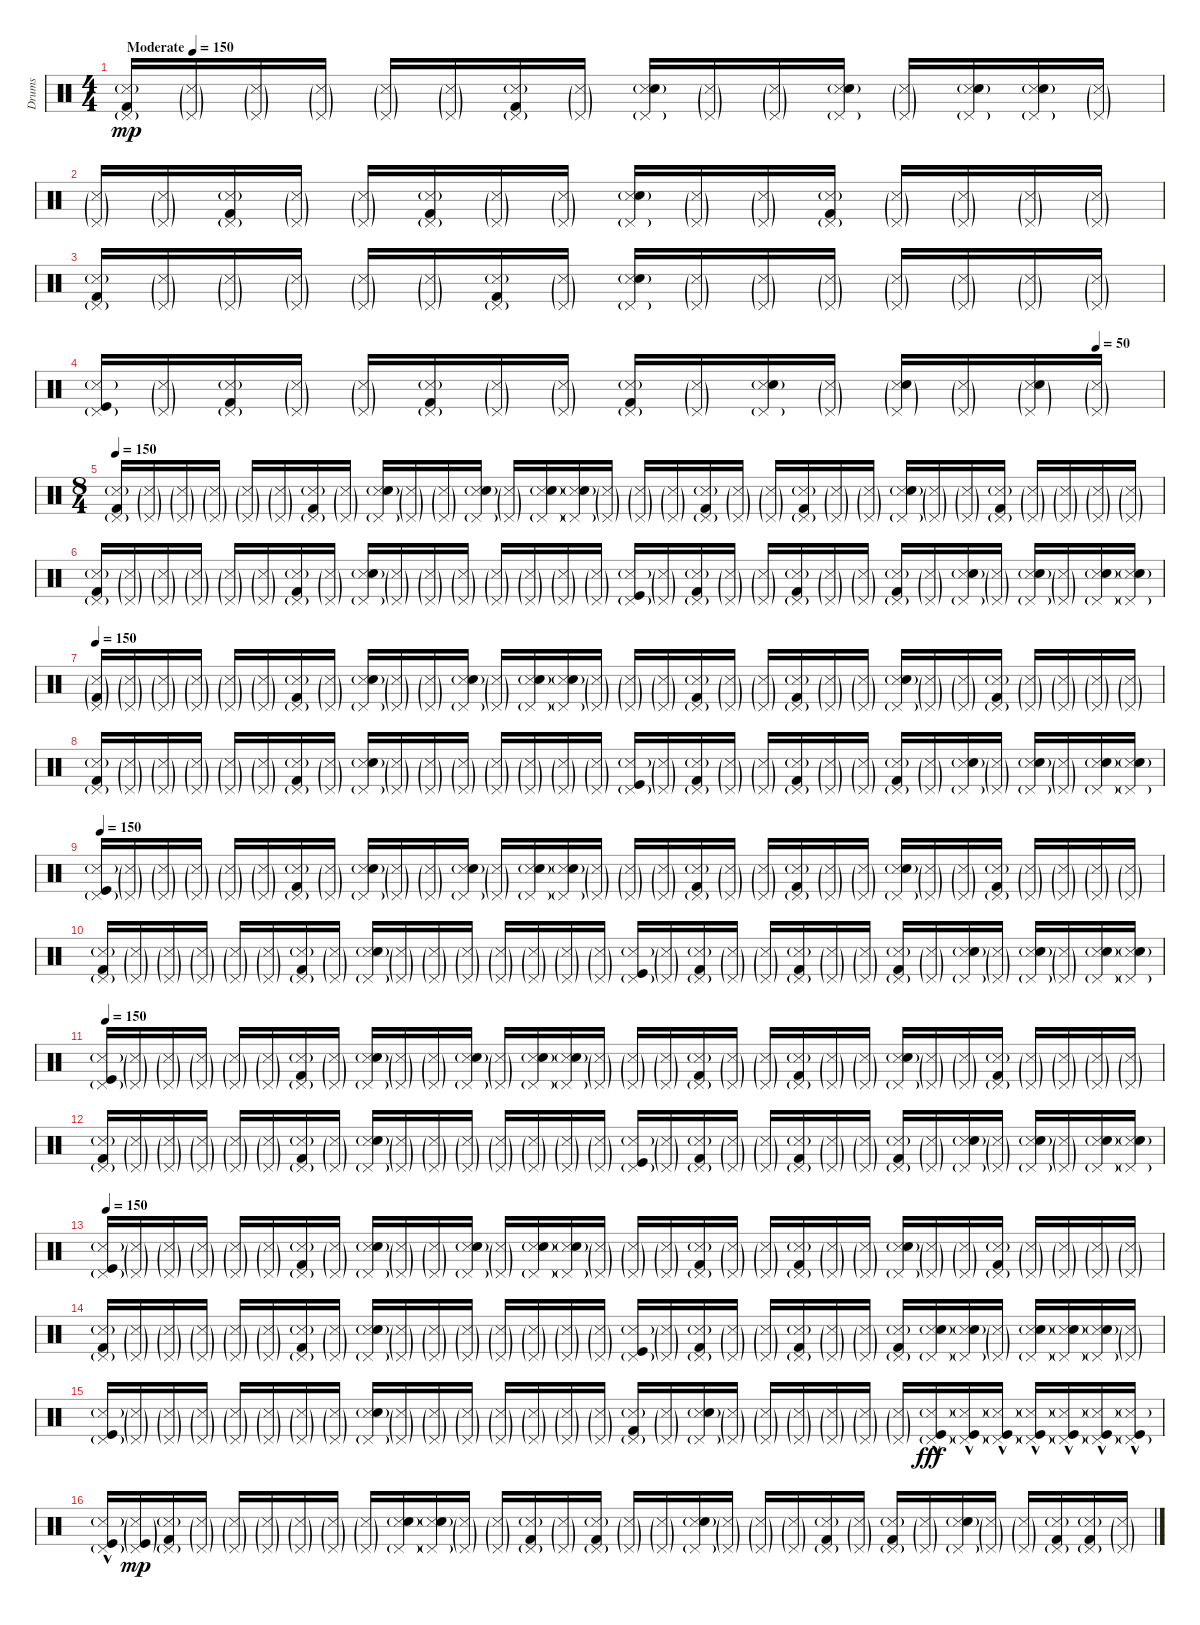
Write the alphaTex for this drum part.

\track ("Drums" "Drums") {instrument percussion}
\staff {score}
\articulation defaults
\ts (4 4)
\tempo (150 "Moderate")
\clef neutral
\ks c
("Pedal Hi-Hat (hit)"{g} "Snare (side stick) 3"{g} "Kick (hit) 2").16{dy mp} ("Pedal Hi-Hat (hit)"{g} "Snare (side stick) 3"{g}).16 ("Pedal Hi-Hat (hit)"{g} "Snare (side stick) 3"{g}).16 ("Pedal Hi-Hat (hit)"{g} "Snare (side stick) 3"{g}).16 ("Pedal Hi-Hat (hit)"{g} "Snare (side stick) 3"{g}).16 ("Pedal Hi-Hat (hit)"{g} "Snare (side stick) 3"{g}).16 ("Pedal Hi-Hat (hit)"{g} "Snare (side stick) 3"{g} "Kick (hit) 2").16 ("Pedal Hi-Hat (hit)"{g} "Snare (side stick) 3"{g}).16 ("Pedal Hi-Hat (hit)"{g} "Snare (side stick) 3"{g} "Electric Snare (hit)").16 ("Pedal Hi-Hat (hit)"{g} "Snare (side stick) 3"{g}).16 ("Pedal Hi-Hat (hit)"{g} "Snare (side stick) 3"{g}).16 ("Pedal Hi-Hat (hit)"{g} "Snare (side stick) 3"{g} "Electric Snare (hit)").16 ("Pedal Hi-Hat (hit)"{g} "Snare (side stick) 3"{g}).16 ("Pedal Hi-Hat (hit)"{g} "Snare (side stick) 3"{g} "Electric Snare (hit)").16 ("Pedal Hi-Hat (hit)"{g} "Snare (side stick) 3"{g} "Electric Snare (hit)").16 ("Pedal Hi-Hat (hit)"{g} "Snare (side stick) 3"{g}).16 |
("Pedal Hi-Hat (hit)"{g} "Snare (side stick) 3"{g}).16 ("Pedal Hi-Hat (hit)"{g} "Snare (side stick) 3"{g}).16 ("Pedal Hi-Hat (hit)"{g} "Snare (side stick) 3"{g} "Kick (hit) 2").16 ("Pedal Hi-Hat (hit)"{g} "Snare (side stick) 3"{g}).16 ("Pedal Hi-Hat (hit)"{g} "Snare (side stick) 3"{g}).16 ("Pedal Hi-Hat (hit)"{g} "Snare (side stick) 3"{g} "Kick (hit) 2").16 ("Pedal Hi-Hat (hit)"{g} "Snare (side stick) 3"{g}).16 ("Pedal Hi-Hat (hit)"{g} "Snare (side stick) 3"{g}).16 ("Pedal Hi-Hat (hit)"{g} "Snare (side stick) 3"{g} "Electric Snare (hit)").16 ("Pedal Hi-Hat (hit)"{g} "Snare (side stick) 3"{g}).16 ("Pedal Hi-Hat (hit)"{g} "Snare (side stick) 3"{g}).16 ("Pedal Hi-Hat (hit)"{g} "Snare (side stick) 3"{g} "Kick (hit) 2").16 ("Pedal Hi-Hat (hit)"{g} "Snare (side stick) 3"{g}).16 ("Pedal Hi-Hat (hit)"{g} "Snare (side stick) 3"{g}).16 ("Pedal Hi-Hat (hit)"{g} "Snare (side stick) 3"{g}).16 ("Pedal Hi-Hat (hit)"{g} "Snare (side stick) 3"{g}).16 |
("Pedal Hi-Hat (hit)"{g} "Snare (side stick) 3"{g} "Kick (hit) 2").16 ("Pedal Hi-Hat (hit)"{g} "Snare (side stick) 3"{g}).16 ("Pedal Hi-Hat (hit)"{g} "Snare (side stick) 3"{g}).16 ("Pedal Hi-Hat (hit)"{g} "Snare (side stick) 3"{g}).16 ("Pedal Hi-Hat (hit)"{g} "Snare (side stick) 3"{g}).16 ("Pedal Hi-Hat (hit)"{g} "Snare (side stick) 3"{g}).16 ("Pedal Hi-Hat (hit)"{g} "Snare (side stick) 3"{g} "Kick (hit) 2").16 ("Pedal Hi-Hat (hit)"{g} "Snare (side stick) 3"{g}).16 ("Pedal Hi-Hat (hit)"{g} "Snare (side stick) 3"{g} "Electric Snare (hit)").16 ("Pedal Hi-Hat (hit)"{g} "Snare (side stick) 3"{g}).16 ("Pedal Hi-Hat (hit)"{g} "Snare (side stick) 3"{g}).16 ("Pedal Hi-Hat (hit)"{g} "Snare (side stick) 3"{g}).16 ("Pedal Hi-Hat (hit)"{g} "Snare (side stick) 3"{g}).16 ("Pedal Hi-Hat (hit)"{g} "Snare (side stick) 3"{g}).16 ("Pedal Hi-Hat (hit)"{g} "Snare (side stick) 3"{g}).16 ("Pedal Hi-Hat (hit)"{g} "Snare (side stick) 3"{g}).16 |
\tempo (50 0.9375)
("Pedal Hi-Hat (hit)"{g} "Snare (side stick) 3"{g} "Kick (hit)").16 ("Pedal Hi-Hat (hit)"{g} "Snare (side stick) 3"{g}).16 ("Pedal Hi-Hat (hit)"{g} "Snare (side stick) 3"{g} "Kick (hit) 2").16 ("Pedal Hi-Hat (hit)"{g} "Snare (side stick) 3"{g}).16 ("Pedal Hi-Hat (hit)"{g} "Snare (side stick) 3"{g}).16 ("Pedal Hi-Hat (hit)"{g} "Snare (side stick) 3"{g} "Kick (hit) 2").16 ("Pedal Hi-Hat (hit)"{g} "Snare (side stick) 3"{g}).16 ("Pedal Hi-Hat (hit)"{g} "Snare (side stick) 3"{g}).16 ("Pedal Hi-Hat (hit)"{g} "Snare (side stick) 3"{g} "Kick (hit) 2").16 ("Pedal Hi-Hat (hit)"{g} "Snare (side stick) 3"{g}).16 ("Pedal Hi-Hat (hit)"{g} "Snare (side stick) 3"{g} "Electric Snare (hit)").16 ("Pedal Hi-Hat (hit)"{g} "Snare (side stick) 3"{g}).16 ("Pedal Hi-Hat (hit)"{g} "Snare (side stick) 3"{g} "Electric Snare (hit)"{g}).16 ("Pedal Hi-Hat (hit)"{g} "Snare (side stick) 3"{g}).16 ("Pedal Hi-Hat (hit)"{g} "Snare (side stick) 3"{g} "Electric Snare (hit)"{g}).16 ("Pedal Hi-Hat (hit)"{g} "Snare (side stick) 3"{g}).16 |
\ts (8 4)
\tempo 150
("Pedal Hi-Hat (hit)"{g} "Snare (side stick) 3"{g} "Kick (hit) 2").16 ("Pedal Hi-Hat (hit)"{g} "Snare (side stick) 3"{g}).16 ("Pedal Hi-Hat (hit)"{g} "Snare (side stick) 3"{g}).16 ("Pedal Hi-Hat (hit)"{g} "Snare (side stick) 3"{g}).16 ("Pedal Hi-Hat (hit)"{g} "Snare (side stick) 3"{g}).16 ("Pedal Hi-Hat (hit)"{g} "Snare (side stick) 3"{g}).16 ("Pedal Hi-Hat (hit)"{g} "Snare (side stick) 3"{g} "Kick (hit) 2").16 ("Pedal Hi-Hat (hit)"{g} "Snare (side stick) 3"{g}).16 ("Pedal Hi-Hat (hit)"{g} "Snare (side stick) 3"{g} "Electric Snare (hit)").16 ("Pedal Hi-Hat (hit)"{g} "Snare (side stick) 3"{g}).16 ("Pedal Hi-Hat (hit)"{g} "Snare (side stick) 3"{g}).16 ("Pedal Hi-Hat (hit)"{g} "Snare (side stick) 3"{g} "Electric Snare (hit)").16 ("Pedal Hi-Hat (hit)"{g} "Snare (side stick) 3"{g}).16 ("Pedal Hi-Hat (hit)"{g} "Snare (side stick) 3"{g} "Electric Snare (hit)").16 ("Pedal Hi-Hat (hit)"{g} "Snare (side stick) 3"{g} "Electric Snare (hit)").16 ("Pedal Hi-Hat (hit)"{g} "Snare (side stick) 3"{g}).16 ("Pedal Hi-Hat (hit)"{g} "Snare (side stick) 3"{g}).16 ("Pedal Hi-Hat (hit)"{g} "Snare (side stick) 3"{g}).16 ("Pedal Hi-Hat (hit)"{g} "Snare (side stick) 3"{g} "Kick (hit) 2").16 ("Pedal Hi-Hat (hit)"{g} "Snare (side stick) 3"{g}).16 ("Pedal Hi-Hat (hit)"{g} "Snare (side stick) 3"{g}).16 ("Pedal Hi-Hat (hit)"{g} "Snare (side stick) 3"{g} "Kick (hit) 2").16 ("Pedal Hi-Hat (hit)"{g} "Snare (side stick) 3"{g}).16 ("Pedal Hi-Hat (hit)"{g} "Snare (side stick) 3"{g}).16 ("Pedal Hi-Hat (hit)"{g} "Snare (side stick) 3"{g} "Electric Snare (hit)").16 ("Pedal Hi-Hat (hit)"{g} "Snare (side stick) 3"{g}).16 ("Pedal Hi-Hat (hit)"{g} "Snare (side stick) 3"{g}).16 ("Pedal Hi-Hat (hit)"{g} "Snare (side stick) 3"{g} "Kick (hit) 2").16 ("Pedal Hi-Hat (hit)"{g} "Snare (side stick) 3"{g}).16 ("Pedal Hi-Hat (hit)"{g} "Snare (side stick) 3"{g}).16 ("Pedal Hi-Hat (hit)"{g} "Snare (side stick) 3"{g}).16 ("Pedal Hi-Hat (hit)"{g} "Snare (side stick) 3"{g}).16 |
("Pedal Hi-Hat (hit)"{g} "Snare (side stick) 3"{g} "Kick (hit) 2").16 ("Pedal Hi-Hat (hit)"{g} "Snare (side stick) 3"{g}).16 ("Pedal Hi-Hat (hit)"{g} "Snare (side stick) 3"{g}).16 ("Pedal Hi-Hat (hit)"{g} "Snare (side stick) 3"{g}).16 ("Pedal Hi-Hat (hit)"{g} "Snare (side stick) 3"{g}).16 ("Pedal Hi-Hat (hit)"{g} "Snare (side stick) 3"{g}).16 ("Pedal Hi-Hat (hit)"{g} "Snare (side stick) 3"{g} "Kick (hit) 2").16 ("Pedal Hi-Hat (hit)"{g} "Snare (side stick) 3"{g}).16 ("Pedal Hi-Hat (hit)"{g} "Snare (side stick) 3"{g} "Electric Snare (hit)").16 ("Pedal Hi-Hat (hit)"{g} "Snare (side stick) 3"{g}).16 ("Pedal Hi-Hat (hit)"{g} "Snare (side stick) 3"{g}).16 ("Pedal Hi-Hat (hit)"{g} "Snare (side stick) 3"{g}).16 ("Pedal Hi-Hat (hit)"{g} "Snare (side stick) 3"{g}).16 ("Pedal Hi-Hat (hit)"{g} "Snare (side stick) 3"{g}).16 ("Pedal Hi-Hat (hit)"{g} "Snare (side stick) 3"{g}).16 ("Pedal Hi-Hat (hit)"{g} "Snare (side stick) 3"{g}).16 ("Pedal Hi-Hat (hit)"{g} "Snare (side stick) 3"{g} "Kick (hit)").16 ("Pedal Hi-Hat (hit)"{g} "Snare (side stick) 3"{g}).16 ("Pedal Hi-Hat (hit)"{g} "Snare (side stick) 3"{g} "Kick (hit) 2").16 ("Pedal Hi-Hat (hit)"{g} "Snare (side stick) 3"{g}).16 ("Pedal Hi-Hat (hit)"{g} "Snare (side stick) 3"{g}).16 ("Pedal Hi-Hat (hit)"{g} "Snare (side stick) 3"{g} "Kick (hit) 2").16 ("Pedal Hi-Hat (hit)"{g} "Snare (side stick) 3"{g}).16 ("Pedal Hi-Hat (hit)"{g} "Snare (side stick) 3"{g}).16 ("Pedal Hi-Hat (hit)"{g} "Snare (side stick) 3"{g} "Kick (hit) 2").16 ("Pedal Hi-Hat (hit)"{g} "Snare (side stick) 3"{g}).16 ("Pedal Hi-Hat (hit)"{g} "Snare (side stick) 3"{g} "Electric Snare (hit)").16 ("Pedal Hi-Hat (hit)"{g} "Snare (side stick) 3"{g}).16 ("Pedal Hi-Hat (hit)"{g} "Snare (side stick) 3"{g} "Electric Snare (hit)").16 ("Pedal Hi-Hat (hit)"{g} "Snare (side stick) 3"{g}).16 ("Pedal Hi-Hat (hit)"{g} "Snare (side stick) 3"{g} "Electric Snare (hit)").16 ("Pedal Hi-Hat (hit)"{g} "Snare (side stick) 3"{g} "Electric Snare (hit)").16 |
\tempo 150
("Pedal Hi-Hat (hit)"{g} "Snare (side stick) 3"{g} "Kick (hit) 2"{g}).16 ("Pedal Hi-Hat (hit)"{g} "Snare (side stick) 3"{g}).16 ("Pedal Hi-Hat (hit)"{g} "Snare (side stick) 3"{g}).16 ("Pedal Hi-Hat (hit)"{g} "Snare (side stick) 3"{g}).16 ("Pedal Hi-Hat (hit)"{g} "Snare (side stick) 3"{g}).16 ("Pedal Hi-Hat (hit)"{g} "Snare (side stick) 3"{g}).16 ("Pedal Hi-Hat (hit)"{g} "Snare (side stick) 3"{g} "Kick (hit) 2").16 ("Pedal Hi-Hat (hit)"{g} "Snare (side stick) 3"{g}).16 ("Pedal Hi-Hat (hit)"{g} "Snare (side stick) 3"{g} "Electric Snare (hit)").16 ("Pedal Hi-Hat (hit)"{g} "Snare (side stick) 3"{g}).16 ("Pedal Hi-Hat (hit)"{g} "Snare (side stick) 3"{g}).16 ("Pedal Hi-Hat (hit)"{g} "Snare (side stick) 3"{g} "Electric Snare (hit)").16 ("Pedal Hi-Hat (hit)"{g} "Snare (side stick) 3"{g}).16 ("Pedal Hi-Hat (hit)"{g} "Snare (side stick) 3"{g} "Electric Snare (hit)").16 ("Pedal Hi-Hat (hit)"{g} "Snare (side stick) 3"{g} "Electric Snare (hit)").16 ("Pedal Hi-Hat (hit)"{g} "Snare (side stick) 3"{g}).16 ("Pedal Hi-Hat (hit)"{g} "Snare (side stick) 3"{g}).16 ("Pedal Hi-Hat (hit)"{g} "Snare (side stick) 3"{g}).16 ("Pedal Hi-Hat (hit)"{g} "Snare (side stick) 3"{g} "Kick (hit) 2").16 ("Pedal Hi-Hat (hit)"{g} "Snare (side stick) 3"{g}).16 ("Pedal Hi-Hat (hit)"{g} "Snare (side stick) 3"{g}).16 ("Pedal Hi-Hat (hit)"{g} "Snare (side stick) 3"{g} "Kick (hit) 2").16 ("Pedal Hi-Hat (hit)"{g} "Snare (side stick) 3"{g}).16 ("Pedal Hi-Hat (hit)"{g} "Snare (side stick) 3"{g}).16 ("Pedal Hi-Hat (hit)"{g} "Snare (side stick) 3"{g} "Electric Snare (hit)").16 ("Pedal Hi-Hat (hit)"{g} "Snare (side stick) 3"{g}).16 ("Pedal Hi-Hat (hit)"{g} "Snare (side stick) 3"{g}).16 ("Pedal Hi-Hat (hit)"{g} "Snare (side stick) 3"{g} "Kick (hit) 2").16 ("Pedal Hi-Hat (hit)"{g} "Snare (side stick) 3"{g}).16 ("Pedal Hi-Hat (hit)"{g} "Snare (side stick) 3"{g}).16 ("Pedal Hi-Hat (hit)"{g} "Snare (side stick) 3"{g}).16 ("Pedal Hi-Hat (hit)"{g} "Snare (side stick) 3"{g}).16 |
("Pedal Hi-Hat (hit)"{g} "Snare (side stick) 3"{g} "Kick (hit) 2").16 ("Pedal Hi-Hat (hit)"{g} "Snare (side stick) 3"{g}).16 ("Pedal Hi-Hat (hit)"{g} "Snare (side stick) 3"{g}).16 ("Pedal Hi-Hat (hit)"{g} "Snare (side stick) 3"{g}).16 ("Pedal Hi-Hat (hit)"{g} "Snare (side stick) 3"{g}).16 ("Pedal Hi-Hat (hit)"{g} "Snare (side stick) 3"{g}).16 ("Pedal Hi-Hat (hit)"{g} "Snare (side stick) 3"{g} "Kick (hit) 2").16 ("Pedal Hi-Hat (hit)"{g} "Snare (side stick) 3"{g}).16 ("Pedal Hi-Hat (hit)"{g} "Snare (side stick) 3"{g} "Electric Snare (hit)").16 ("Pedal Hi-Hat (hit)"{g} "Snare (side stick) 3"{g}).16 ("Pedal Hi-Hat (hit)"{g} "Snare (side stick) 3"{g}).16 ("Pedal Hi-Hat (hit)"{g} "Snare (side stick) 3"{g}).16 ("Pedal Hi-Hat (hit)"{g} "Snare (side stick) 3"{g}).16 ("Pedal Hi-Hat (hit)"{g} "Snare (side stick) 3"{g}).16 ("Pedal Hi-Hat (hit)"{g} "Snare (side stick) 3"{g}).16 ("Pedal Hi-Hat (hit)"{g} "Snare (side stick) 3"{g}).16 ("Pedal Hi-Hat (hit)"{g} "Snare (side stick) 3"{g} "Kick (hit)").16 ("Pedal Hi-Hat (hit)"{g} "Snare (side stick) 3"{g}).16 ("Pedal Hi-Hat (hit)"{g} "Snare (side stick) 3"{g} "Kick (hit) 2").16 ("Pedal Hi-Hat (hit)"{g} "Snare (side stick) 3"{g}).16 ("Pedal Hi-Hat (hit)"{g} "Snare (side stick) 3"{g}).16 ("Pedal Hi-Hat (hit)"{g} "Snare (side stick) 3"{g} "Kick (hit) 2").16 ("Pedal Hi-Hat (hit)"{g} "Snare (side stick) 3"{g}).16 ("Pedal Hi-Hat (hit)"{g} "Snare (side stick) 3"{g}).16 ("Pedal Hi-Hat (hit)"{g} "Snare (side stick) 3"{g} "Kick (hit) 2").16 ("Pedal Hi-Hat (hit)"{g} "Snare (side stick) 3"{g}).16 ("Pedal Hi-Hat (hit)"{g} "Snare (side stick) 3"{g} "Electric Snare (hit)").16 ("Pedal Hi-Hat (hit)"{g} "Snare (side stick) 3"{g}).16 ("Pedal Hi-Hat (hit)"{g} "Snare (side stick) 3"{g} "Electric Snare (hit)").16 ("Pedal Hi-Hat (hit)"{g} "Snare (side stick) 3"{g}).16 ("Pedal Hi-Hat (hit)"{g} "Snare (side stick) 3"{g} "Electric Snare (hit)").16 ("Pedal Hi-Hat (hit)"{g} "Snare (side stick) 3"{g} "Electric Snare (hit)").16 |
\tempo 150
("Pedal Hi-Hat (hit)"{g} "Snare (side stick) 3"{g} "Kick (hit)").16 ("Pedal Hi-Hat (hit)"{g} "Snare (side stick) 3"{g}).16 ("Pedal Hi-Hat (hit)"{g} "Snare (side stick) 3"{g}).16 ("Pedal Hi-Hat (hit)"{g} "Snare (side stick) 3"{g}).16 ("Pedal Hi-Hat (hit)"{g} "Snare (side stick) 3"{g}).16 ("Pedal Hi-Hat (hit)"{g} "Snare (side stick) 3"{g}).16 ("Pedal Hi-Hat (hit)"{g} "Snare (side stick) 3"{g} "Kick (hit) 2").16 ("Pedal Hi-Hat (hit)"{g} "Snare (side stick) 3"{g}).16 ("Pedal Hi-Hat (hit)"{g} "Snare (side stick) 3"{g} "Electric Snare (hit)").16 ("Pedal Hi-Hat (hit)"{g} "Snare (side stick) 3"{g}).16 ("Pedal Hi-Hat (hit)"{g} "Snare (side stick) 3"{g}).16 ("Pedal Hi-Hat (hit)"{g} "Snare (side stick) 3"{g} "Electric Snare (hit)").16 ("Pedal Hi-Hat (hit)"{g} "Snare (side stick) 3"{g}).16 ("Pedal Hi-Hat (hit)"{g} "Snare (side stick) 3"{g} "Electric Snare (hit)").16 ("Pedal Hi-Hat (hit)"{g} "Snare (side stick) 3"{g} "Electric Snare (hit)").16 ("Pedal Hi-Hat (hit)"{g} "Snare (side stick) 3"{g}).16 ("Pedal Hi-Hat (hit)"{g} "Snare (side stick) 3"{g}).16 ("Pedal Hi-Hat (hit)"{g} "Snare (side stick) 3"{g}).16 ("Pedal Hi-Hat (hit)"{g} "Snare (side stick) 3"{g} "Kick (hit) 2").16 ("Pedal Hi-Hat (hit)"{g} "Snare (side stick) 3"{g}).16 ("Pedal Hi-Hat (hit)"{g} "Snare (side stick) 3"{g}).16 ("Pedal Hi-Hat (hit)"{g} "Snare (side stick) 3"{g} "Kick (hit) 2").16 ("Pedal Hi-Hat (hit)"{g} "Snare (side stick) 3"{g}).16 ("Pedal Hi-Hat (hit)"{g} "Snare (side stick) 3"{g}).16 ("Pedal Hi-Hat (hit)"{g} "Snare (side stick) 3"{g} "Electric Snare (hit)").16 ("Pedal Hi-Hat (hit)"{g} "Snare (side stick) 3"{g}).16 ("Pedal Hi-Hat (hit)"{g} "Snare (side stick) 3"{g}).16 ("Pedal Hi-Hat (hit)"{g} "Snare (side stick) 3"{g} "Kick (hit) 2").16 ("Pedal Hi-Hat (hit)"{g} "Snare (side stick) 3"{g}).16 ("Pedal Hi-Hat (hit)"{g} "Snare (side stick) 3"{g}).16 ("Pedal Hi-Hat (hit)"{g} "Snare (side stick) 3"{g}).16 ("Pedal Hi-Hat (hit)"{g} "Snare (side stick) 3"{g}).16 |
("Pedal Hi-Hat (hit)"{g} "Snare (side stick) 3"{g} "Kick (hit) 2").16 ("Pedal Hi-Hat (hit)"{g} "Snare (side stick) 3"{g}).16 ("Pedal Hi-Hat (hit)"{g} "Snare (side stick) 3"{g}).16 ("Pedal Hi-Hat (hit)"{g} "Snare (side stick) 3"{g}).16 ("Pedal Hi-Hat (hit)"{g} "Snare (side stick) 3"{g}).16 ("Pedal Hi-Hat (hit)"{g} "Snare (side stick) 3"{g}).16 ("Pedal Hi-Hat (hit)"{g} "Snare (side stick) 3"{g} "Kick (hit) 2").16 ("Pedal Hi-Hat (hit)"{g} "Snare (side stick) 3"{g}).16 ("Pedal Hi-Hat (hit)"{g} "Snare (side stick) 3"{g} "Electric Snare (hit)").16 ("Pedal Hi-Hat (hit)"{g} "Snare (side stick) 3"{g}).16 ("Pedal Hi-Hat (hit)"{g} "Snare (side stick) 3"{g}).16 ("Pedal Hi-Hat (hit)"{g} "Snare (side stick) 3"{g}).16 ("Pedal Hi-Hat (hit)"{g} "Snare (side stick) 3"{g}).16 ("Pedal Hi-Hat (hit)"{g} "Snare (side stick) 3"{g}).16 ("Pedal Hi-Hat (hit)"{g} "Snare (side stick) 3"{g}).16 ("Pedal Hi-Hat (hit)"{g} "Snare (side stick) 3"{g}).16 ("Pedal Hi-Hat (hit)"{g} "Snare (side stick) 3"{g} "Kick (hit)").16 ("Pedal Hi-Hat (hit)"{g} "Snare (side stick) 3"{g}).16 ("Pedal Hi-Hat (hit)"{g} "Snare (side stick) 3"{g} "Kick (hit) 2").16 ("Pedal Hi-Hat (hit)"{g} "Snare (side stick) 3"{g}).16 ("Pedal Hi-Hat (hit)"{g} "Snare (side stick) 3"{g}).16 ("Pedal Hi-Hat (hit)"{g} "Snare (side stick) 3"{g} "Kick (hit) 2").16 ("Pedal Hi-Hat (hit)"{g} "Snare (side stick) 3"{g}).16 ("Pedal Hi-Hat (hit)"{g} "Snare (side stick) 3"{g}).16 ("Pedal Hi-Hat (hit)"{g} "Snare (side stick) 3"{g} "Kick (hit) 2").16 ("Pedal Hi-Hat (hit)"{g} "Snare (side stick) 3"{g}).16 ("Pedal Hi-Hat (hit)"{g} "Snare (side stick) 3"{g} "Electric Snare (hit)").16 ("Pedal Hi-Hat (hit)"{g} "Snare (side stick) 3"{g}).16 ("Pedal Hi-Hat (hit)"{g} "Snare (side stick) 3"{g} "Electric Snare (hit)").16 ("Pedal Hi-Hat (hit)"{g} "Snare (side stick) 3"{g}).16 ("Pedal Hi-Hat (hit)"{g} "Snare (side stick) 3"{g} "Electric Snare (hit)").16 ("Pedal Hi-Hat (hit)"{g} "Snare (side stick) 3"{g} "Electric Snare (hit)").16 |
\tempo 150
("Pedal Hi-Hat (hit)"{g} "Snare (side stick) 3"{g} "Kick (hit)").16 ("Pedal Hi-Hat (hit)"{g} "Snare (side stick) 3"{g}).16 ("Pedal Hi-Hat (hit)"{g} "Snare (side stick) 3"{g}).16 ("Pedal Hi-Hat (hit)"{g} "Snare (side stick) 3"{g}).16 ("Pedal Hi-Hat (hit)"{g} "Snare (side stick) 3"{g}).16 ("Pedal Hi-Hat (hit)"{g} "Snare (side stick) 3"{g}).16 ("Pedal Hi-Hat (hit)"{g} "Snare (side stick) 3"{g} "Kick (hit) 2").16 ("Pedal Hi-Hat (hit)"{g} "Snare (side stick) 3"{g}).16 ("Pedal Hi-Hat (hit)"{g} "Snare (side stick) 3"{g} "Electric Snare (hit)").16 ("Pedal Hi-Hat (hit)"{g} "Snare (side stick) 3"{g}).16 ("Pedal Hi-Hat (hit)"{g} "Snare (side stick) 3"{g}).16 ("Pedal Hi-Hat (hit)"{g} "Snare (side stick) 3"{g} "Electric Snare (hit)").16 ("Pedal Hi-Hat (hit)"{g} "Snare (side stick) 3"{g}).16 ("Pedal Hi-Hat (hit)"{g} "Snare (side stick) 3"{g} "Electric Snare (hit)").16 ("Pedal Hi-Hat (hit)"{g} "Snare (side stick) 3"{g} "Electric Snare (hit)").16 ("Pedal Hi-Hat (hit)"{g} "Snare (side stick) 3"{g}).16 ("Pedal Hi-Hat (hit)"{g} "Snare (side stick) 3"{g}).16 ("Pedal Hi-Hat (hit)"{g} "Snare (side stick) 3"{g}).16 ("Pedal Hi-Hat (hit)"{g} "Snare (side stick) 3"{g} "Kick (hit) 2").16 ("Pedal Hi-Hat (hit)"{g} "Snare (side stick) 3"{g}).16 ("Pedal Hi-Hat (hit)"{g} "Snare (side stick) 3"{g}).16 ("Pedal Hi-Hat (hit)"{g} "Snare (side stick) 3"{g} "Kick (hit) 2").16 ("Pedal Hi-Hat (hit)"{g} "Snare (side stick) 3"{g}).16 ("Pedal Hi-Hat (hit)"{g} "Snare (side stick) 3"{g}).16 ("Pedal Hi-Hat (hit)"{g} "Snare (side stick) 3"{g} "Electric Snare (hit)").16 ("Pedal Hi-Hat (hit)"{g} "Snare (side stick) 3"{g}).16 ("Pedal Hi-Hat (hit)"{g} "Snare (side stick) 3"{g}).16 ("Pedal Hi-Hat (hit)"{g} "Snare (side stick) 3"{g} "Kick (hit) 2").16 ("Pedal Hi-Hat (hit)"{g} "Snare (side stick) 3"{g}).16 ("Pedal Hi-Hat (hit)"{g} "Snare (side stick) 3"{g}).16 ("Pedal Hi-Hat (hit)"{g} "Snare (side stick) 3"{g}).16 ("Pedal Hi-Hat (hit)"{g} "Snare (side stick) 3"{g}).16 |
("Pedal Hi-Hat (hit)"{g} "Snare (side stick) 3"{g} "Kick (hit) 2").16 ("Pedal Hi-Hat (hit)"{g} "Snare (side stick) 3"{g}).16 ("Pedal Hi-Hat (hit)"{g} "Snare (side stick) 3"{g}).16 ("Pedal Hi-Hat (hit)"{g} "Snare (side stick) 3"{g}).16 ("Pedal Hi-Hat (hit)"{g} "Snare (side stick) 3"{g}).16 ("Pedal Hi-Hat (hit)"{g} "Snare (side stick) 3"{g}).16 ("Pedal Hi-Hat (hit)"{g} "Snare (side stick) 3"{g} "Kick (hit) 2").16 ("Pedal Hi-Hat (hit)"{g} "Snare (side stick) 3"{g}).16 ("Pedal Hi-Hat (hit)"{g} "Snare (side stick) 3"{g} "Electric Snare (hit)").16 ("Pedal Hi-Hat (hit)"{g} "Snare (side stick) 3"{g}).16 ("Pedal Hi-Hat (hit)"{g} "Snare (side stick) 3"{g}).16 ("Pedal Hi-Hat (hit)"{g} "Snare (side stick) 3"{g}).16 ("Pedal Hi-Hat (hit)"{g} "Snare (side stick) 3"{g}).16 ("Pedal Hi-Hat (hit)"{g} "Snare (side stick) 3"{g}).16 ("Pedal Hi-Hat (hit)"{g} "Snare (side stick) 3"{g}).16 ("Pedal Hi-Hat (hit)"{g} "Snare (side stick) 3"{g}).16 ("Pedal Hi-Hat (hit)"{g} "Snare (side stick) 3"{g} "Kick (hit)").16 ("Pedal Hi-Hat (hit)"{g} "Snare (side stick) 3"{g}).16 ("Pedal Hi-Hat (hit)"{g} "Snare (side stick) 3"{g} "Kick (hit) 2").16 ("Pedal Hi-Hat (hit)"{g} "Snare (side stick) 3"{g}).16 ("Pedal Hi-Hat (hit)"{g} "Snare (side stick) 3"{g}).16 ("Pedal Hi-Hat (hit)"{g} "Snare (side stick) 3"{g} "Kick (hit) 2").16 ("Pedal Hi-Hat (hit)"{g} "Snare (side stick) 3"{g}).16 ("Pedal Hi-Hat (hit)"{g} "Snare (side stick) 3"{g}).16 ("Pedal Hi-Hat (hit)"{g} "Snare (side stick) 3"{g} "Kick (hit) 2").16 ("Pedal Hi-Hat (hit)"{g} "Snare (side stick) 3"{g}).16 ("Pedal Hi-Hat (hit)"{g} "Snare (side stick) 3"{g} "Electric Snare (hit)").16 ("Pedal Hi-Hat (hit)"{g} "Snare (side stick) 3"{g}).16 ("Pedal Hi-Hat (hit)"{g} "Snare (side stick) 3"{g} "Electric Snare (hit)").16 ("Pedal Hi-Hat (hit)"{g} "Snare (side stick) 3"{g}).16 ("Pedal Hi-Hat (hit)"{g} "Snare (side stick) 3"{g} "Electric Snare (hit)").16 ("Pedal Hi-Hat (hit)"{g} "Snare (side stick) 3"{g} "Electric Snare (hit)").16 |
\tempo 150
("Pedal Hi-Hat (hit)"{g} "Snare (side stick) 3"{g} "Kick (hit)").16 ("Pedal Hi-Hat (hit)"{g} "Snare (side stick) 3"{g}).16 ("Pedal Hi-Hat (hit)"{g} "Snare (side stick) 3"{g}).16 ("Pedal Hi-Hat (hit)"{g} "Snare (side stick) 3"{g}).16 ("Pedal Hi-Hat (hit)"{g} "Snare (side stick) 3"{g}).16 ("Pedal Hi-Hat (hit)"{g} "Snare (side stick) 3"{g}).16 ("Pedal Hi-Hat (hit)"{g} "Snare (side stick) 3"{g} "Kick (hit) 2").16 ("Pedal Hi-Hat (hit)"{g} "Snare (side stick) 3"{g}).16 ("Pedal Hi-Hat (hit)"{g} "Snare (side stick) 3"{g} "Electric Snare (hit)").16 ("Pedal Hi-Hat (hit)"{g} "Snare (side stick) 3"{g}).16 ("Pedal Hi-Hat (hit)"{g} "Snare (side stick) 3"{g}).16 ("Pedal Hi-Hat (hit)"{g} "Snare (side stick) 3"{g} "Electric Snare (hit)").16 ("Pedal Hi-Hat (hit)"{g} "Snare (side stick) 3"{g}).16 ("Pedal Hi-Hat (hit)"{g} "Snare (side stick) 3"{g} "Electric Snare (hit)").16 ("Pedal Hi-Hat (hit)"{g} "Snare (side stick) 3"{g} "Electric Snare (hit)").16 ("Pedal Hi-Hat (hit)"{g} "Snare (side stick) 3"{g}).16 ("Pedal Hi-Hat (hit)"{g} "Snare (side stick) 3"{g}).16 ("Pedal Hi-Hat (hit)"{g} "Snare (side stick) 3"{g}).16 ("Pedal Hi-Hat (hit)"{g} "Snare (side stick) 3"{g} "Kick (hit) 2").16 ("Pedal Hi-Hat (hit)"{g} "Snare (side stick) 3"{g}).16 ("Pedal Hi-Hat (hit)"{g} "Snare (side stick) 3"{g}).16 ("Pedal Hi-Hat (hit)"{g} "Snare (side stick) 3"{g} "Kick (hit) 2").16 ("Pedal Hi-Hat (hit)"{g} "Snare (side stick) 3"{g}).16 ("Pedal Hi-Hat (hit)"{g} "Snare (side stick) 3"{g}).16 ("Pedal Hi-Hat (hit)"{g} "Snare (side stick) 3"{g} "Electric Snare (hit)").16 ("Pedal Hi-Hat (hit)"{g} "Snare (side stick) 3"{g}).16 ("Pedal Hi-Hat (hit)"{g} "Snare (side stick) 3"{g}).16 ("Pedal Hi-Hat (hit)"{g} "Snare (side stick) 3"{g} "Kick (hit) 2").16 ("Pedal Hi-Hat (hit)"{g} "Snare (side stick) 3"{g}).16 ("Pedal Hi-Hat (hit)"{g} "Snare (side stick) 3"{g}).16 ("Pedal Hi-Hat (hit)"{g} "Snare (side stick) 3"{g}).16 ("Pedal Hi-Hat (hit)"{g} "Snare (side stick) 3"{g}).16 |
("Pedal Hi-Hat (hit)"{g} "Snare (side stick) 3"{g} "Kick (hit) 2").16 ("Pedal Hi-Hat (hit)"{g} "Snare (side stick) 3"{g}).16 ("Pedal Hi-Hat (hit)"{g} "Snare (side stick) 3"{g}).16 ("Pedal Hi-Hat (hit)"{g} "Snare (side stick) 3"{g}).16 ("Pedal Hi-Hat (hit)"{g} "Snare (side stick) 3"{g}).16 ("Pedal Hi-Hat (hit)"{g} "Snare (side stick) 3"{g}).16 ("Pedal Hi-Hat (hit)"{g} "Snare (side stick) 3"{g} "Kick (hit) 2").16 ("Pedal Hi-Hat (hit)"{g} "Snare (side stick) 3"{g}).16 ("Pedal Hi-Hat (hit)"{g} "Snare (side stick) 3"{g} "Electric Snare (hit)").16 ("Pedal Hi-Hat (hit)"{g} "Snare (side stick) 3"{g}).16 ("Pedal Hi-Hat (hit)"{g} "Snare (side stick) 3"{g}).16 ("Pedal Hi-Hat (hit)"{g} "Snare (side stick) 3"{g}).16 ("Pedal Hi-Hat (hit)"{g} "Snare (side stick) 3"{g}).16 ("Pedal Hi-Hat (hit)"{g} "Snare (side stick) 3"{g}).16 ("Pedal Hi-Hat (hit)"{g} "Snare (side stick) 3"{g}).16 ("Pedal Hi-Hat (hit)"{g} "Snare (side stick) 3"{g}).16 ("Pedal Hi-Hat (hit)"{g} "Snare (side stick) 3"{g} "Kick (hit)").16 ("Pedal Hi-Hat (hit)"{g} "Snare (side stick) 3"{g}).16 ("Pedal Hi-Hat (hit)"{g} "Snare (side stick) 3"{g} "Kick (hit) 2").16 ("Pedal Hi-Hat (hit)"{g} "Snare (side stick) 3"{g}).16 ("Pedal Hi-Hat (hit)"{g} "Snare (side stick) 3"{g}).16 ("Pedal Hi-Hat (hit)"{g} "Snare (side stick) 3"{g} "Kick (hit) 2").16 ("Pedal Hi-Hat (hit)"{g} "Snare (side stick) 3"{g}).16 ("Pedal Hi-Hat (hit)"{g} "Snare (side stick) 3"{g}).16 ("Pedal Hi-Hat (hit)"{g} "Snare (side stick) 3"{g} "Kick (hit) 2").16 ("Pedal Hi-Hat (hit)"{g} "Snare (side stick) 3"{g} "Electric Snare (hit)").16 ("Pedal Hi-Hat (hit)"{g} "Snare (side stick) 3"{g} "Electric Snare (hit)").16 ("Pedal Hi-Hat (hit)"{g} "Snare (side stick) 3"{g}).16 ("Pedal Hi-Hat (hit)"{g} "Snare (side stick) 3"{g} "Electric Snare (hit)").16 ("Pedal Hi-Hat (hit)"{g} "Snare (side stick) 3"{g} "Electric Snare (hit)").16 ("Pedal Hi-Hat (hit)"{g} "Snare (side stick) 3"{g} "Electric Snare (hit)").16 ("Pedal Hi-Hat (hit)"{g} "Snare (side stick) 3"{g}).16 |
("Pedal Hi-Hat (hit)"{g} "Snare (side stick) 3"{g} "Kick (hit)").16 ("Pedal Hi-Hat (hit)"{g} "Snare (side stick) 3"{g}).16 ("Pedal Hi-Hat (hit)"{g} "Snare (side stick) 3"{g}).16 ("Pedal Hi-Hat (hit)"{g} "Snare (side stick) 3"{g}).16 ("Pedal Hi-Hat (hit)"{g} "Snare (side stick) 3"{g}).16 ("Pedal Hi-Hat (hit)"{g} "Snare (side stick) 3"{g}).16 ("Pedal Hi-Hat (hit)"{g} "Snare (side stick) 3"{g}).16 ("Pedal Hi-Hat (hit)"{g} "Snare (side stick) 3"{g}).16 ("Pedal Hi-Hat (hit)"{g} "Snare (side stick) 3"{g} "Electric Snare (hit)").16 ("Pedal Hi-Hat (hit)"{g} "Snare (side stick) 3"{g}).16 ("Pedal Hi-Hat (hit)"{g} "Snare (side stick) 3"{g}).16 ("Pedal Hi-Hat (hit)"{g} "Snare (side stick) 3"{g}).16 ("Pedal Hi-Hat (hit)"{g} "Snare (side stick) 3"{g}).16 ("Pedal Hi-Hat (hit)"{g} "Snare (side stick) 3"{g}).16 ("Pedal Hi-Hat (hit)"{g} "Snare (side stick) 3"{g}).16 ("Pedal Hi-Hat (hit)"{g} "Snare (side stick) 3"{g}).16 ("Pedal Hi-Hat (hit)"{g} "Snare (side stick) 3"{g} "Kick (hit) 2").16 ("Pedal Hi-Hat (hit)"{g} "Snare (side stick) 3"{g}).16 ("Pedal Hi-Hat (hit)"{g} "Snare (side stick) 3"{g} "Electric Snare (hit)").16 ("Pedal Hi-Hat (hit)"{g} "Snare (side stick) 3"{g}).16 ("Pedal Hi-Hat (hit)"{g} "Snare (side stick) 3"{g}).16 ("Pedal Hi-Hat (hit)"{g} "Snare (side stick) 3"{g}).16 ("Pedal Hi-Hat (hit)"{g} "Snare (side stick) 3"{g}).16 ("Pedal Hi-Hat (hit)"{g} "Snare (side stick) 3"{g}).16 ("Pedal Hi-Hat (hit)"{g} "Snare (side stick) 3"{g}).16 ("Pedal Hi-Hat (hit)"{g} "Snare (side stick) 3"{g} "Kick (hit)"{hac}).16{dy fff} ("Pedal Hi-Hat (hit)"{g} "Snare (side stick) 3"{g} "Kick (hit)"{hac}).16 ("Pedal Hi-Hat (hit)"{g} "Snare (side stick) 3"{g} "Kick (hit)"{hac}).16 ("Pedal Hi-Hat (hit)"{g} "Snare (side stick) 3"{g} "Kick (hit)"{hac}).16 ("Pedal Hi-Hat (hit)"{g} "Snare (side stick) 3"{g} "Kick (hit)"{hac}).16 ("Pedal Hi-Hat (hit)"{g} "Snare (side stick) 3"{g} "Kick (hit)"{hac}).16 ("Pedal Hi-Hat (hit)"{g} "Snare (side stick) 3"{g} "Kick (hit)"{hac}).16 |
("Pedal Hi-Hat (hit)"{g} "Snare (side stick) 3"{g} "Kick (hit)"{hac}).16 ("Pedal Hi-Hat (hit)"{g} "Snare (side stick) 3"{g} "Kick (hit)"{g}).16{dy mp} ("Pedal Hi-Hat (hit)"{g} "Snare (side stick) 3"{g} "Kick (hit) 2").16 ("Pedal Hi-Hat (hit)"{g} "Snare (side stick) 3"{g}).16 ("Pedal Hi-Hat (hit)"{g} "Snare (side stick) 3"{g}).16 ("Pedal Hi-Hat (hit)"{g} "Snare (side stick) 3"{g}).16 ("Pedal Hi-Hat (hit)"{g} "Snare (side stick) 3"{g}).16 ("Pedal Hi-Hat (hit)"{g} "Snare (side stick) 3"{g}).16 ("Pedal Hi-Hat (hit)"{g} "Snare (side stick) 3"{g}).16 ("Pedal Hi-Hat (hit)"{g} "Snare (side stick) 3"{g} "Electric Snare (hit)").16 ("Pedal Hi-Hat (hit)"{g} "Snare (side stick) 3"{g} "Electric Snare (hit)").16 ("Pedal Hi-Hat (hit)"{g} "Snare (side stick) 3"{g}).16 ("Pedal Hi-Hat (hit)"{g} "Snare (side stick) 3"{g}).16 ("Pedal Hi-Hat (hit)"{g} "Snare (side stick) 3"{g} "Kick (hit) 2").16 ("Pedal Hi-Hat (hit)"{g} "Snare (side stick) 3"{g}).16 ("Pedal Hi-Hat (hit)"{g} "Snare (side stick) 3"{g} "Kick (hit) 2").16 ("Pedal Hi-Hat (hit)"{g} "Snare (side stick) 3"{g}).16 ("Pedal Hi-Hat (hit)"{g} "Snare (side stick) 3"{g}).16 ("Pedal Hi-Hat (hit)"{g} "Snare (side stick) 3"{g} "Electric Snare (hit)").16 ("Pedal Hi-Hat (hit)"{g} "Snare (side stick) 3"{g}).16 ("Pedal Hi-Hat (hit)"{g} "Snare (side stick) 3"{g}).16 ("Pedal Hi-Hat (hit)"{g} "Snare (side stick) 3"{g}).16 ("Pedal Hi-Hat (hit)"{g} "Snare (side stick) 3"{g} "Kick (hit) 2").16 ("Pedal Hi-Hat (hit)"{g} "Snare (side stick) 3"{g}).16 ("Pedal Hi-Hat (hit)"{g} "Snare (side stick) 3"{g} "Kick (hit) 2").16 ("Pedal Hi-Hat (hit)"{g} "Snare (side stick) 3"{g}).16 ("Pedal Hi-Hat (hit)"{g} "Snare (side stick) 3"{g} "Electric Snare (hit)").16 ("Pedal Hi-Hat (hit)"{g} "Snare (side stick) 3"{g}).16 ("Pedal Hi-Hat (hit)"{g} "Snare (side stick) 3"{g}).16 ("Pedal Hi-Hat (hit)"{g} "Snare (side stick) 3"{g} "Kick (hit) 2").16 ("Pedal Hi-Hat (hit)"{g} "Snare (side stick) 3"{g} "Kick (hit) 2").16 ("Pedal Hi-Hat (hit)"{g} "Snare (side stick) 3"{g}).16
